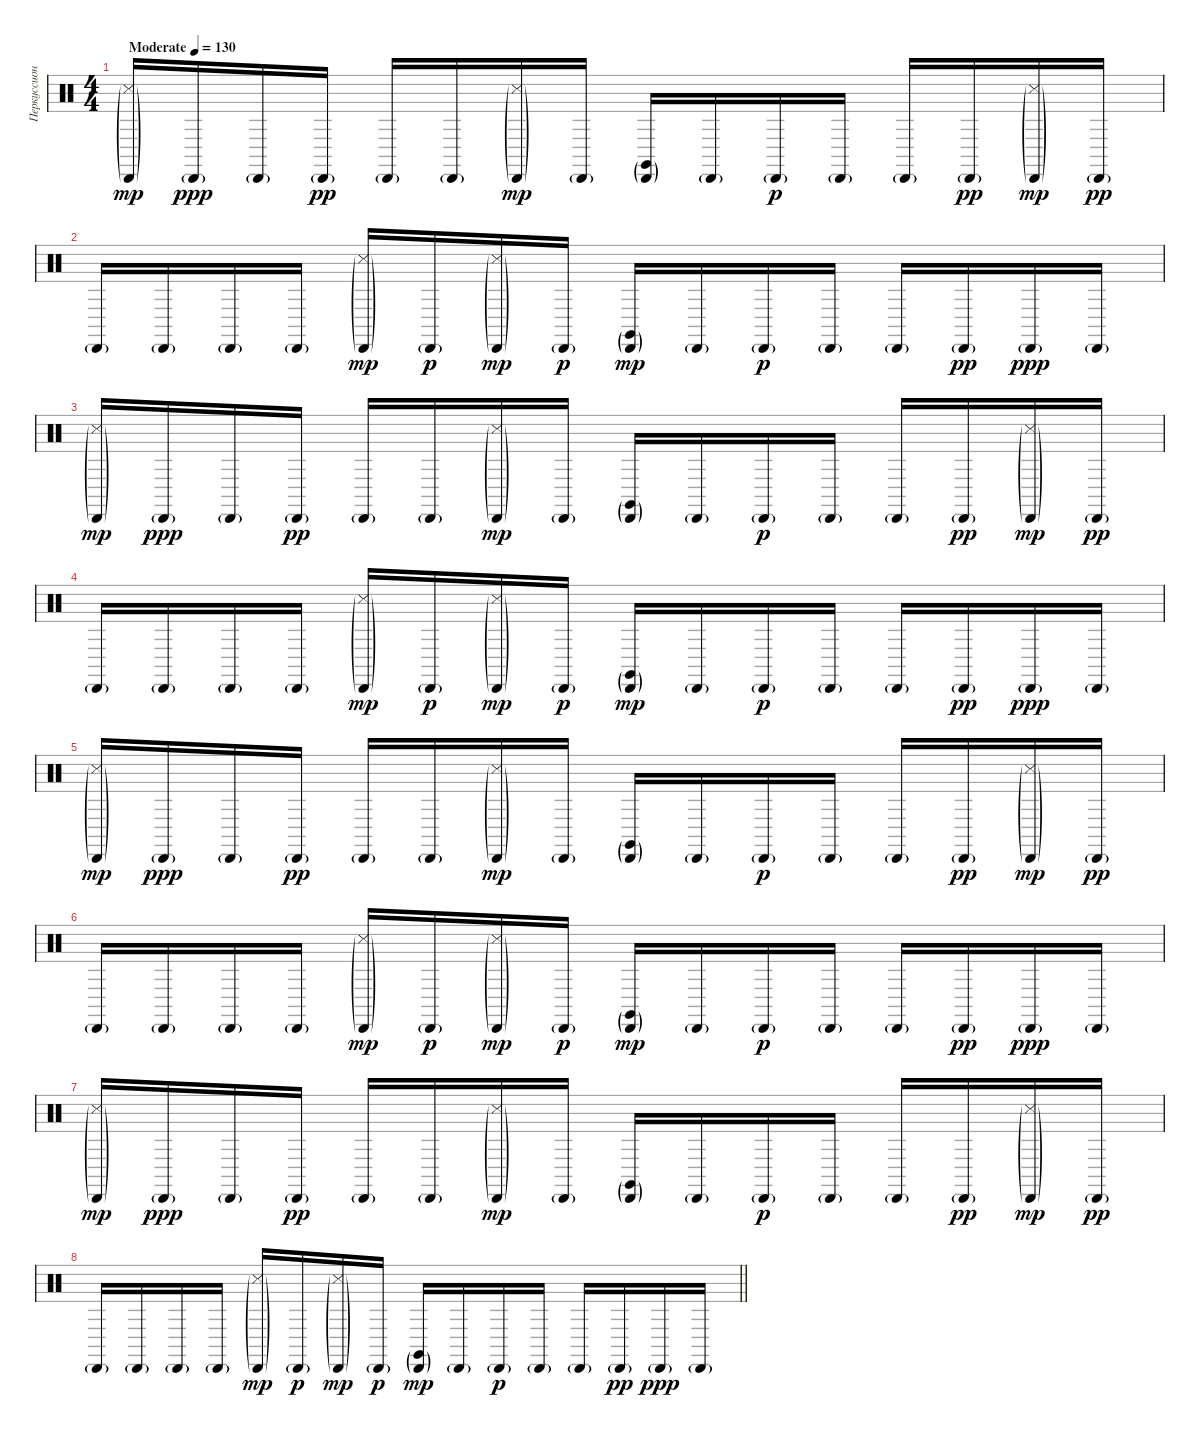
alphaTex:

\track ("Перкуссионный Синтез" "Перкуссион") {instrument percussion}
\staff {score}
\articulation defaults
\ts (4 4)
\tempo (130 "Moderate")
\clef neutral
\ks c
("Cabasa (hit)"{g} "Metronome (hit)"{g}).16{dy mp} "Cabasa (hit)"{g}.16{dy ppp} "Cabasa (hit)"{g}.16 "Cabasa (hit)"{g}.16{dy pp} "Cabasa (hit)"{g}.16 "Cabasa (hit)"{g}.16 ("Cabasa (hit)"{g} "Metronome (hit)"{g}).16{dy mp} "Cabasa (hit)"{g}.16 ("Cabasa (hit)"{g} "Claves (hit)"{g}).16 "Cabasa (hit)"{g}.16 "Cabasa (hit)"{g}.16{dy p} "Cabasa (hit)"{g}.16 "Cabasa (hit)"{g}.16 "Cabasa (hit)"{g}.16{dy pp} ("Cabasa (hit)"{g} "Metronome (hit)"{g}).16{dy mp} "Cabasa (hit)"{g}.16{dy pp} |
"Cabasa (hit)"{g}.16 "Cabasa (hit)"{g}.16 "Cabasa (hit)"{g}.16 "Cabasa (hit)"{g}.16 ("Cabasa (hit)"{g} "Metronome (hit)"{g}).16{dy mp} "Cabasa (hit)"{g}.16{dy p} ("Cabasa (hit)"{g} "Metronome (hit)"{g}).16{dy mp} "Cabasa (hit)"{g}.16{dy p} ("Cabasa (hit)"{g} "Claves (hit)"{g}).16{dy mp} "Cabasa (hit)"{g}.16 "Cabasa (hit)"{g}.16{dy p} "Cabasa (hit)"{g}.16 "Cabasa (hit)"{g}.16 "Cabasa (hit)"{g}.16{dy pp} "Cabasa (hit)"{g}.16{dy ppp} "Cabasa (hit)"{g}.16 |
("Cabasa (hit)"{g} "Metronome (hit)"{g}).16{dy mp} "Cabasa (hit)"{g}.16{dy ppp} "Cabasa (hit)"{g}.16 "Cabasa (hit)"{g}.16{dy pp} "Cabasa (hit)"{g}.16 "Cabasa (hit)"{g}.16 ("Cabasa (hit)"{g} "Metronome (hit)"{g}).16{dy mp} "Cabasa (hit)"{g}.16 ("Cabasa (hit)"{g} "Claves (hit)"{g}).16 "Cabasa (hit)"{g}.16 "Cabasa (hit)"{g}.16{dy p} "Cabasa (hit)"{g}.16 "Cabasa (hit)"{g}.16 "Cabasa (hit)"{g}.16{dy pp} ("Cabasa (hit)"{g} "Metronome (hit)"{g}).16{dy mp} "Cabasa (hit)"{g}.16{dy pp} |
"Cabasa (hit)"{g}.16 "Cabasa (hit)"{g}.16 "Cabasa (hit)"{g}.16 "Cabasa (hit)"{g}.16 ("Cabasa (hit)"{g} "Metronome (hit)"{g}).16{dy mp} "Cabasa (hit)"{g}.16{dy p} ("Cabasa (hit)"{g} "Metronome (hit)"{g}).16{dy mp} "Cabasa (hit)"{g}.16{dy p} ("Cabasa (hit)"{g} "Claves (hit)"{g}).16{dy mp} "Cabasa (hit)"{g}.16 "Cabasa (hit)"{g}.16{dy p} "Cabasa (hit)"{g}.16 "Cabasa (hit)"{g}.16 "Cabasa (hit)"{g}.16{dy pp} "Cabasa (hit)"{g}.16{dy ppp} "Cabasa (hit)"{g}.16 |
("Cabasa (hit)"{g} "Metronome (hit)"{g}).16{dy mp} "Cabasa (hit)"{g}.16{dy ppp} "Cabasa (hit)"{g}.16 "Cabasa (hit)"{g}.16{dy pp} "Cabasa (hit)"{g}.16 "Cabasa (hit)"{g}.16 ("Cabasa (hit)"{g} "Metronome (hit)"{g}).16{dy mp} "Cabasa (hit)"{g}.16 ("Cabasa (hit)"{g} "Claves (hit)"{g}).16 "Cabasa (hit)"{g}.16 "Cabasa (hit)"{g}.16{dy p} "Cabasa (hit)"{g}.16 "Cabasa (hit)"{g}.16 "Cabasa (hit)"{g}.16{dy pp} ("Cabasa (hit)"{g} "Metronome (hit)"{g}).16{dy mp} "Cabasa (hit)"{g}.16{dy pp} |
"Cabasa (hit)"{g}.16 "Cabasa (hit)"{g}.16 "Cabasa (hit)"{g}.16 "Cabasa (hit)"{g}.16 ("Cabasa (hit)"{g} "Metronome (hit)"{g}).16{dy mp} "Cabasa (hit)"{g}.16{dy p} ("Cabasa (hit)"{g} "Metronome (hit)"{g}).16{dy mp} "Cabasa (hit)"{g}.16{dy p} ("Cabasa (hit)"{g} "Claves (hit)"{g}).16{dy mp} "Cabasa (hit)"{g}.16 "Cabasa (hit)"{g}.16{dy p} "Cabasa (hit)"{g}.16 "Cabasa (hit)"{g}.16 "Cabasa (hit)"{g}.16{dy pp} "Cabasa (hit)"{g}.16{dy ppp} "Cabasa (hit)"{g}.16 |
("Cabasa (hit)"{g} "Metronome (hit)"{g}).16{dy mp} "Cabasa (hit)"{g}.16{dy ppp} "Cabasa (hit)"{g}.16 "Cabasa (hit)"{g}.16{dy pp} "Cabasa (hit)"{g}.16 "Cabasa (hit)"{g}.16 ("Cabasa (hit)"{g} "Metronome (hit)"{g}).16{dy mp} "Cabasa (hit)"{g}.16 ("Cabasa (hit)"{g} "Claves (hit)"{g}).16 "Cabasa (hit)"{g}.16 "Cabasa (hit)"{g}.16{dy p} "Cabasa (hit)"{g}.16 "Cabasa (hit)"{g}.16 "Cabasa (hit)"{g}.16{dy pp} ("Cabasa (hit)"{g} "Metronome (hit)"{g}).16{dy mp} "Cabasa (hit)"{g}.16{dy pp} |
\barLineRight lightlight "Cabasa (hit)"{g}.16 "Cabasa (hit)"{g}.16 "Cabasa (hit)"{g}.16 "Cabasa (hit)"{g}.16
("Cabasa (hit)"{g} "Metronome (hit)"{g}).16{dy mp} "Cabasa (hit)"{g}.16{dy p} ("Cabasa (hit)"{g} "Metronome (hit)"{g}).16{dy mp} "Cabasa (hit)"{g}.16{dy p} ("Cabasa (hit)"{g} "Claves (hit)"{g}).16{dy mp} "Cabasa (hit)"{g}.16 "Cabasa (hit)"{g}.16{dy p} "Cabasa (hit)"{g}.16 "Cabasa (hit)"{g}.16 "Cabasa (hit)"{g}.16{dy pp} "Cabasa (hit)"{g}.16{dy ppp} "Cabasa (hit)"{g}.16
